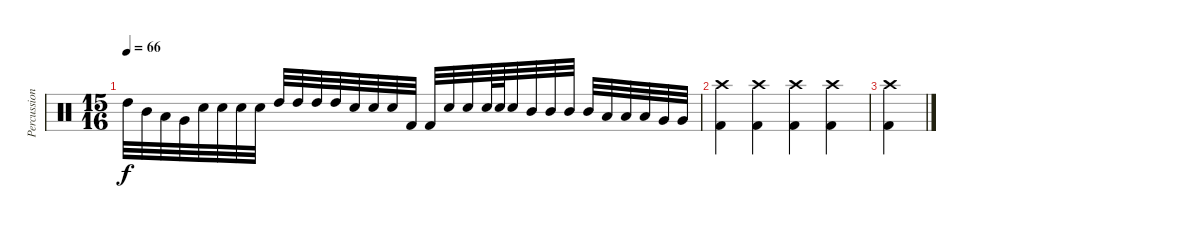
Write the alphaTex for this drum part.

\track ("Percussion" "Percussion") {instrument percussion}
\staff {score}
\articulation defaults
\ts (15 16)
\tempo 66
\clef neutral
\ks c "High Tom (hit)".32{dy f} "Mid Tom (hit)".32 "Low Tom (hit)".32 "Very Low Tom (hit)".32 "Snare (hit) 2".32 "Snare (hit) 2".32 "Snare (hit) 2".32 "Snare (hit) 2".32 "High Tom (hit)".32 "High Tom (hit)".32 "High Tom (hit)".32 "High Tom (hit)".32 "Snare (hit) 2".32 "Snare (hit) 2".32 "Snare (hit) 2".32 "Kick (hit) 2".32 "Kick (hit) 2".32 "Snare (hit) 2".32 "Snare (hit) 2".32 "Snare (hit) 2".64 "Snare (hit) 2".64 "Snare (hit) 2".32 "Mid Tom (hit)".32 "Mid Tom (hit)".32 "Mid Tom (hit)".32 "Mid Tom (hit)".32 "Low Tom (hit)".32 "Low Tom (hit)".32 "Low Tom (hit)".32 "Very Low Tom (hit)".32 "Very Low Tom (hit)".32
|
("Kick (hit) 2" "Crash high (hit)").4 ("Kick (hit) 2" "Crash high (hit)").4 ("Crash high (hit)" "Kick (hit) 2").4 ("Kick (hit) 2" "Crash high (hit)").4 |
("Kick (hit) 2" "Crash high (hit)").4
